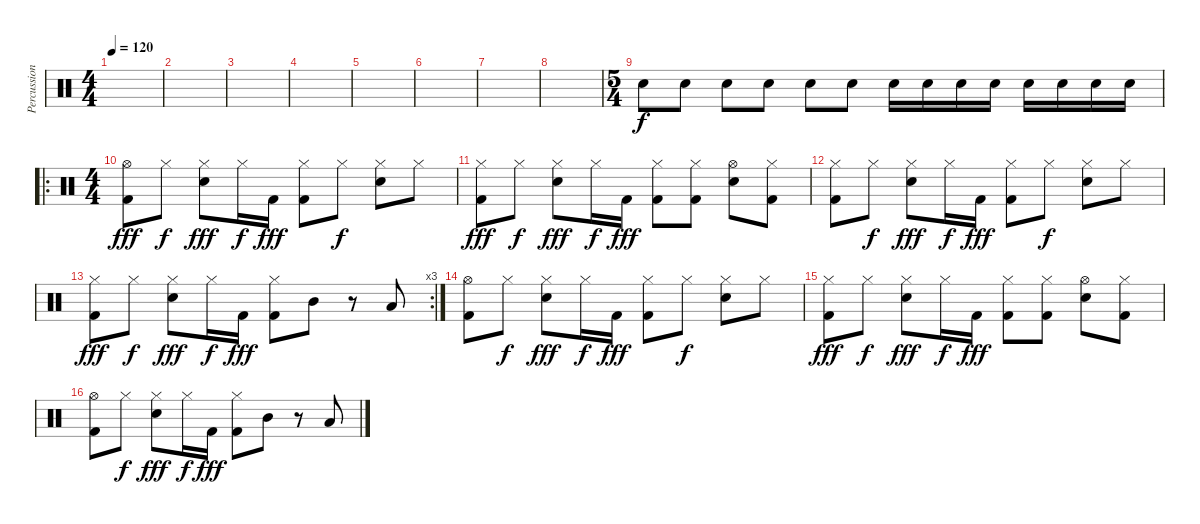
\track ("Percussions" "Percussion") {instrument percussion}
\staff {score}
\articulation defaults
\ts (4 4)
\tempo 120
\clef neutral
\ks c
|
|
|
|
|
|
|
|
\ts (5 4)
"Snare (hit) 2".8 "Snare (hit) 2".8 "Snare (hit) 2".8 "Snare (hit) 2".8 "Snare (hit) 2".8 "Snare (hit) 2".8 "Snare (hit) 2".16 "Snare (hit) 2".16 "Snare (hit) 2".16 "Snare (hit) 2".16 "Snare (hit) 2".16 "Snare (hit) 2".16 "Snare (hit) 2".16 "Snare (hit) 2".16 |
\ro
\ts (4 4)
("Kick (hit) 2" "Hi-Hat (open)").8{dy fff} "Hi-Hat (closed)".8{dy f} ("Snare (hit) 2" "Hi-Hat (closed)").8{dy fff} "Hi-Hat (closed)".16{dy f} "Kick (hit) 2".16{dy fff} ("Kick (hit) 2" "Hi-Hat (closed)").8 "Hi-Hat (closed)".8{dy f} ("Snare (hit) 2" "Hi-Hat (closed)").8 "Hi-Hat (closed)".8 |
("Kick (hit) 2" "Hi-Hat (closed)").8{dy fff} "Hi-Hat (closed)".8{dy f} ("Snare (hit) 2" "Hi-Hat (closed)").8{dy fff} "Hi-Hat (closed)".16{dy f} "Kick (hit) 2".16{dy fff} ("Kick (hit) 2" "Hi-Hat (closed)").8 ("Kick (hit) 2" "Hi-Hat (closed)").8 ("Snare (hit) 2" "Hi-Hat (open)").8 ("Kick (hit) 2" "Hi-Hat (closed)").8 |
("Kick (hit) 2" "Hi-Hat (closed)").8 "Hi-Hat (closed)".8{dy f} ("Snare (hit) 2" "Hi-Hat (closed)").8{dy fff} "Hi-Hat (closed)".16{dy f} "Kick (hit) 2".16{dy fff} ("Kick (hit) 2" "Hi-Hat (closed)").8 "Hi-Hat (closed)".8{dy f} ("Snare (hit) 2" "Hi-Hat (closed)").8 "Hi-Hat (closed)".8 |
\rc 3
("Kick (hit) 2" "Hi-Hat (closed)").8{dy fff} "Hi-Hat (closed)".8{dy f} ("Snare (hit) 2" "Hi-Hat (closed)").8{dy fff} "Hi-Hat (closed)".16{dy f} "Kick (hit) 2".16{dy fff} ("Kick (hit) 2" "Hi-Hat (closed)").8 "Mid Tom (hit)".8 r.8 "Low Floor Tom (hit)".8 |
("Kick (hit) 2" "Hi-Hat (open)").8 "Hi-Hat (closed)".8{dy f} ("Snare (hit) 2" "Hi-Hat (closed)").8{dy fff} "Hi-Hat (closed)".16{dy f} "Kick (hit) 2".16{dy fff} ("Kick (hit) 2" "Hi-Hat (closed)").8 "Hi-Hat (closed)".8{dy f} ("Snare (hit) 2" "Hi-Hat (closed)").8 "Hi-Hat (closed)".8 |
("Kick (hit) 2" "Hi-Hat (closed)").8{dy fff} "Hi-Hat (closed)".8{dy f} ("Snare (hit) 2" "Hi-Hat (closed)").8{dy fff} "Hi-Hat (closed)".16{dy f} "Kick (hit) 2".16{dy fff} ("Kick (hit) 2" "Hi-Hat (closed)").8 ("Kick (hit) 2" "Hi-Hat (closed)").8 ("Snare (hit) 2" "Hi-Hat (open)").8 ("Kick (hit) 2" "Hi-Hat (closed)").8 |
("Kick (hit) 2" "Hi-Hat (open)").8 "Hi-Hat (closed)".8{dy f} ("Snare (hit) 2" "Hi-Hat (closed)").8{dy fff} "Hi-Hat (closed)".16{dy f} "Kick (hit) 2".16{dy fff} ("Kick (hit) 2" "Hi-Hat (closed)").8 "Mid Tom (hit)".8 r.8 "Low Tom (hit)".8
